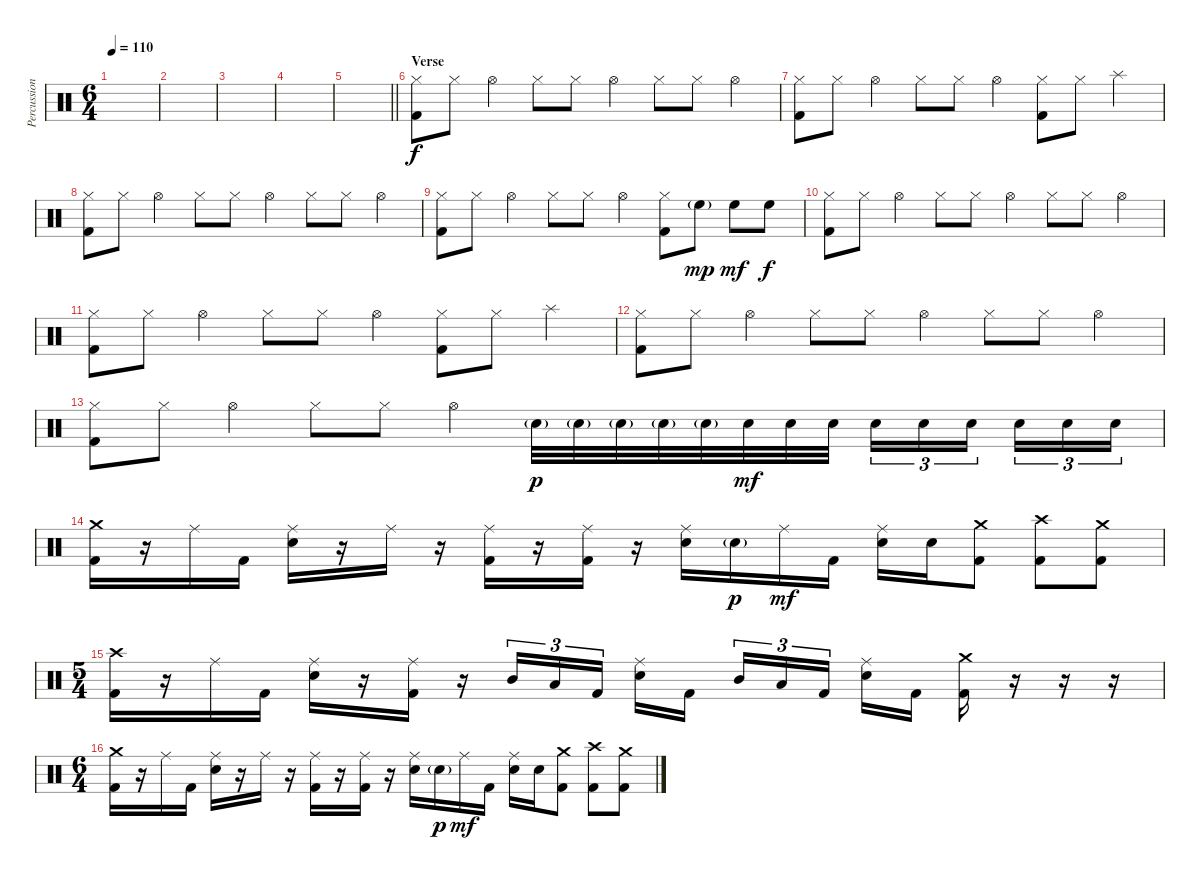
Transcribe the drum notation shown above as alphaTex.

\track ("Percussion" "Percussion") {instrument percussion}
\staff {score}
\articulation defaults
\ts (6 4)
\tempo 110
\clef neutral
\ks c
|
|
|
|
\barLineRight lightlight
|
\section ("" "Verse ")
("Hi-Hat (closed)" "Kick (hit) 2").8 "Hi-Hat (closed)".8 "Hi-Hat (open)".4 "Hi-Hat (closed)".8 "Hi-Hat (closed)".8 "Hi-Hat (open)".4 "Hi-Hat (closed)".8 "Hi-Hat (closed)".8 "Hi-Hat (open)".4 |
("Hi-Hat (closed)" "Kick (hit) 2").8 "Hi-Hat (closed)".8 "Hi-Hat (open)".4 "Hi-Hat (closed)".8 "Hi-Hat (closed)".8 "Hi-Hat (open)".4 ("Hi-Hat (closed)" "Kick (hit) 2").8 "Hi-Hat (closed)".8 "Splash (hit)".4 |
("Hi-Hat (closed)" "Kick (hit) 2").8 "Hi-Hat (closed)".8 "Hi-Hat (open)".4 "Hi-Hat (closed)".8 "Hi-Hat (closed)".8 "Hi-Hat (open)".4 "Hi-Hat (closed)".8 "Hi-Hat (closed)".8 "Hi-Hat (open)".4 |
("Hi-Hat (closed)" "Kick (hit) 2").8 "Hi-Hat (closed)".8 "Hi-Hat (open)".4 "Hi-Hat (closed)".8 "Hi-Hat (closed)".8 "Hi-Hat (open)".4 ("Hi-Hat (closed)" "Kick (hit) 2").8 "High Floor Tom (hit)"{g}.8{dy mp} "High Floor Tom (hit)".8{dy mf} "High Floor Tom (hit)".8{dy f} |
("Hi-Hat (closed)" "Kick (hit) 2").8 "Hi-Hat (closed)".8 "Hi-Hat (open)".4 "Hi-Hat (closed)".8 "Hi-Hat (closed)".8 "Hi-Hat (open)".4 "Hi-Hat (closed)".8 "Hi-Hat (closed)".8 "Hi-Hat (open)".4 |
("Hi-Hat (closed)" "Kick (hit) 2").8 "Hi-Hat (closed)".8 "Hi-Hat (open)".4 "Hi-Hat (closed)".8 "Hi-Hat (closed)".8 "Hi-Hat (open)".4 ("Hi-Hat (closed)" "Kick (hit) 2").8 "Hi-Hat (closed)".8 "Splash (hit)".4 |
("Hi-Hat (closed)" "Kick (hit) 2").8 "Hi-Hat (closed)".8 "Hi-Hat (open)".4 "Hi-Hat (closed)".8 "Hi-Hat (closed)".8 "Hi-Hat (open)".4 "Hi-Hat (closed)".8 "Hi-Hat (closed)".8 "Hi-Hat (open)".4 |
("Hi-Hat (closed)" "Kick (hit) 2").8 "Hi-Hat (closed)".8 "Hi-Hat (open)".4 "Hi-Hat (closed)".8 "Hi-Hat (closed)".8 "Hi-Hat (open)".4 "Electric Snare (hit)"{g}.32{dy p} "Electric Snare (hit)"{g}.32 "Electric Snare (hit)"{g}.32 "Electric Snare (hit)"{g}.32 "Electric Snare (hit)"{g}.32 "Electric Snare (hit)".32{dy mf} "Electric Snare (hit)".32 "Electric Snare (hit)".32{beam splitsecondary} "Electric Snare (hit)".16{tu (3 2)} "Electric Snare (hit)".16{tu (3 2)} "Electric Snare (hit)".16{tu (3 2) beam splitsecondary} "Electric Snare (hit)".16{tu (3 2)} "Electric Snare (hit)".16{tu (3 2)} "Electric Snare (hit)".16{tu (3 2)} |
("Crash medium (hit)" "Kick (hit) 2").16 r.16 "Ride (middle)".16 "Kick (hit) 2".16 ("Ride (middle)" "Electric Snare (hit)").16 r.16 "Ride (middle)".16 r.16 ("Ride (middle)" "Kick (hit) 2").16 r.16 ("Ride (middle)" "Kick (hit) 2").16 r.16 ("Ride (middle)" "Electric Snare (hit)").16 "Electric Snare (hit)"{g}.16{dy p} "Ride (middle)".16{dy mf} "Kick (hit) 2".16 ("Ride (middle)" "Electric Snare (hit)").16 "Electric Snare (hit)".16 ("Crash medium (hit)" "Kick (hit) 2").8 ("Crash high (hit)" "Kick (hit) 2").8 ("Crash medium (hit)" "Kick (hit) 2").8 |
\ts (5 4)
("Crash high (hit)" "Kick (hit) 2").16 r.16 "Ride (middle)".16 "Kick (hit) 2".16 ("Ride (middle)" "Electric Snare (hit)").16 r.16 ("Ride (middle)" "Kick (hit) 2").16 r.16 "Mid Tom (hit)".16{tu (3 2)} "Low Tom (hit)".16{tu (3 2)} "Kick (hit) 2".16{tu (3 2) beam splitsecondary} ("Ride (middle)" "Electric Snare (hit)").16 "Kick (hit) 2".16 "Mid Tom (hit)".16{tu (3 2)} "Low Tom (hit)".16{tu (3 2)} "Kick (hit) 2".16{tu (3 2) beam splitsecondary} ("Ride (middle)" "Electric Snare (hit)").16 "Kick (hit) 2".16 ("Crash medium (hit)" "Kick (hit) 2").16 r.16 r.16 r.16 |
\ts (6 4)
("Crash medium (hit)" "Kick (hit) 2").16 r.16 "Ride (middle)".16 "Kick (hit) 2".16 ("Ride (middle)" "Electric Snare (hit)").16 r.16 "Ride (middle)".16 r.16 ("Ride (middle)" "Kick (hit) 2").16 r.16 ("Ride (middle)" "Kick (hit) 2").16 r.16 ("Ride (middle)" "Electric Snare (hit)").16 "Electric Snare (hit)"{g}.16{dy p} "Ride (middle)".16{dy mf} "Kick (hit) 2".16 ("Ride (middle)" "Electric Snare (hit)").16 "Electric Snare (hit)".16 ("Crash medium (hit)" "Kick (hit) 2").8 ("Crash high (hit)" "Kick (hit) 2").8 ("Crash medium (hit)" "Kick (hit) 2").8
